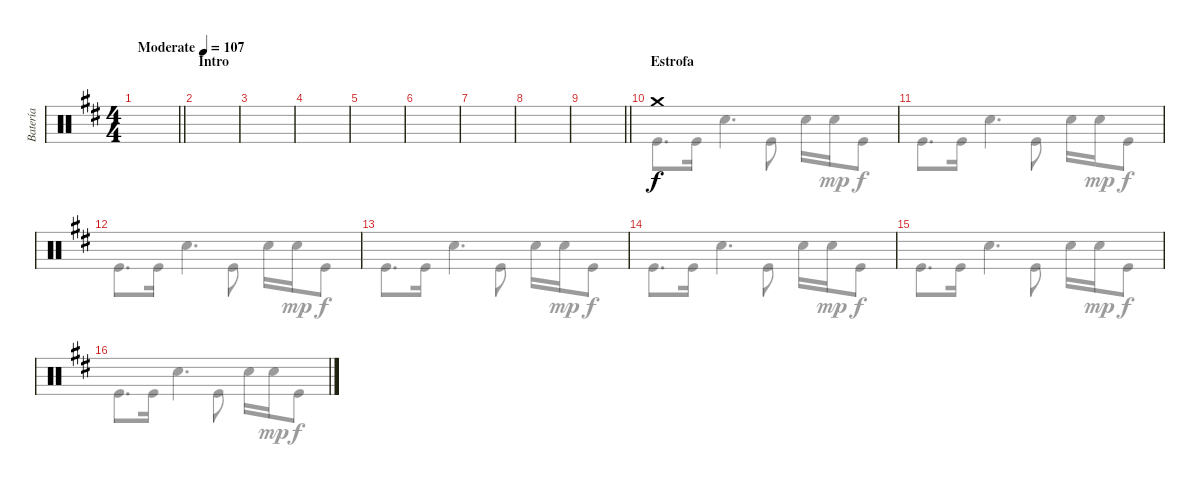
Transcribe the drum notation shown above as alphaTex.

\track ("Batería" "Batería") {instrument percussion}
\staff {score}
\articulation defaults
\voice
\ts (4 4)
\tempo (107 "Moderate")
\clef neutral
\barLineRight lightlight
\ks d
|
\section ("" "Intro")
|
|
|
|
|
|
|
\barLineRight lightlight
|
\section ("" "Estrofa")
"Crash medium (hit)".1 |
|
|
|
|
|
\voice
\clef neutral
\ottava regular
\simile none
\barLineRight lightlight
\ks d
|
|
|
|
|
|
|
|
\barLineRight lightlight
|
"Kick (hit)".8{d} "Kick (hit)".16 "Electric Snare (hit)".4{d} "Kick (hit)".8 "Electric Snare (hit)".16 "Electric Snare (hit)".16{dy mp} "Kick (hit)".8{dy f} |
"Kick (hit)".8{d} "Kick (hit)".16 "Electric Snare (hit)".4{d} "Kick (hit)".8 "Electric Snare (hit)".16 "Electric Snare (hit)".16{dy mp} "Kick (hit)".8{dy f} |
"Kick (hit)".8{d} "Kick (hit)".16 "Electric Snare (hit)".4{d} "Kick (hit)".8 "Electric Snare (hit)".16 "Electric Snare (hit)".16{dy mp} "Kick (hit)".8{dy f} |
"Kick (hit)".8{d} "Kick (hit)".16 "Electric Snare (hit)".4{d} "Kick (hit)".8 "Electric Snare (hit)".16 "Electric Snare (hit)".16{dy mp} "Kick (hit)".8{dy f} |
"Kick (hit)".8{d} "Kick (hit)".16 "Electric Snare (hit)".4{d} "Kick (hit)".8 "Electric Snare (hit)".16 "Electric Snare (hit)".16{dy mp} "Kick (hit)".8{dy f} |
"Kick (hit)".8{d} "Kick (hit)".16 "Electric Snare (hit)".4{d} "Kick (hit)".8 "Electric Snare (hit)".16 "Electric Snare (hit)".16{dy mp} "Kick (hit)".8{dy f} |
"Kick (hit)".8{d} "Kick (hit)".16 "Electric Snare (hit)".4{d} "Kick (hit)".8 "Electric Snare (hit)".16 "Electric Snare (hit)".16{dy mp} "Kick (hit)".8{dy f}
